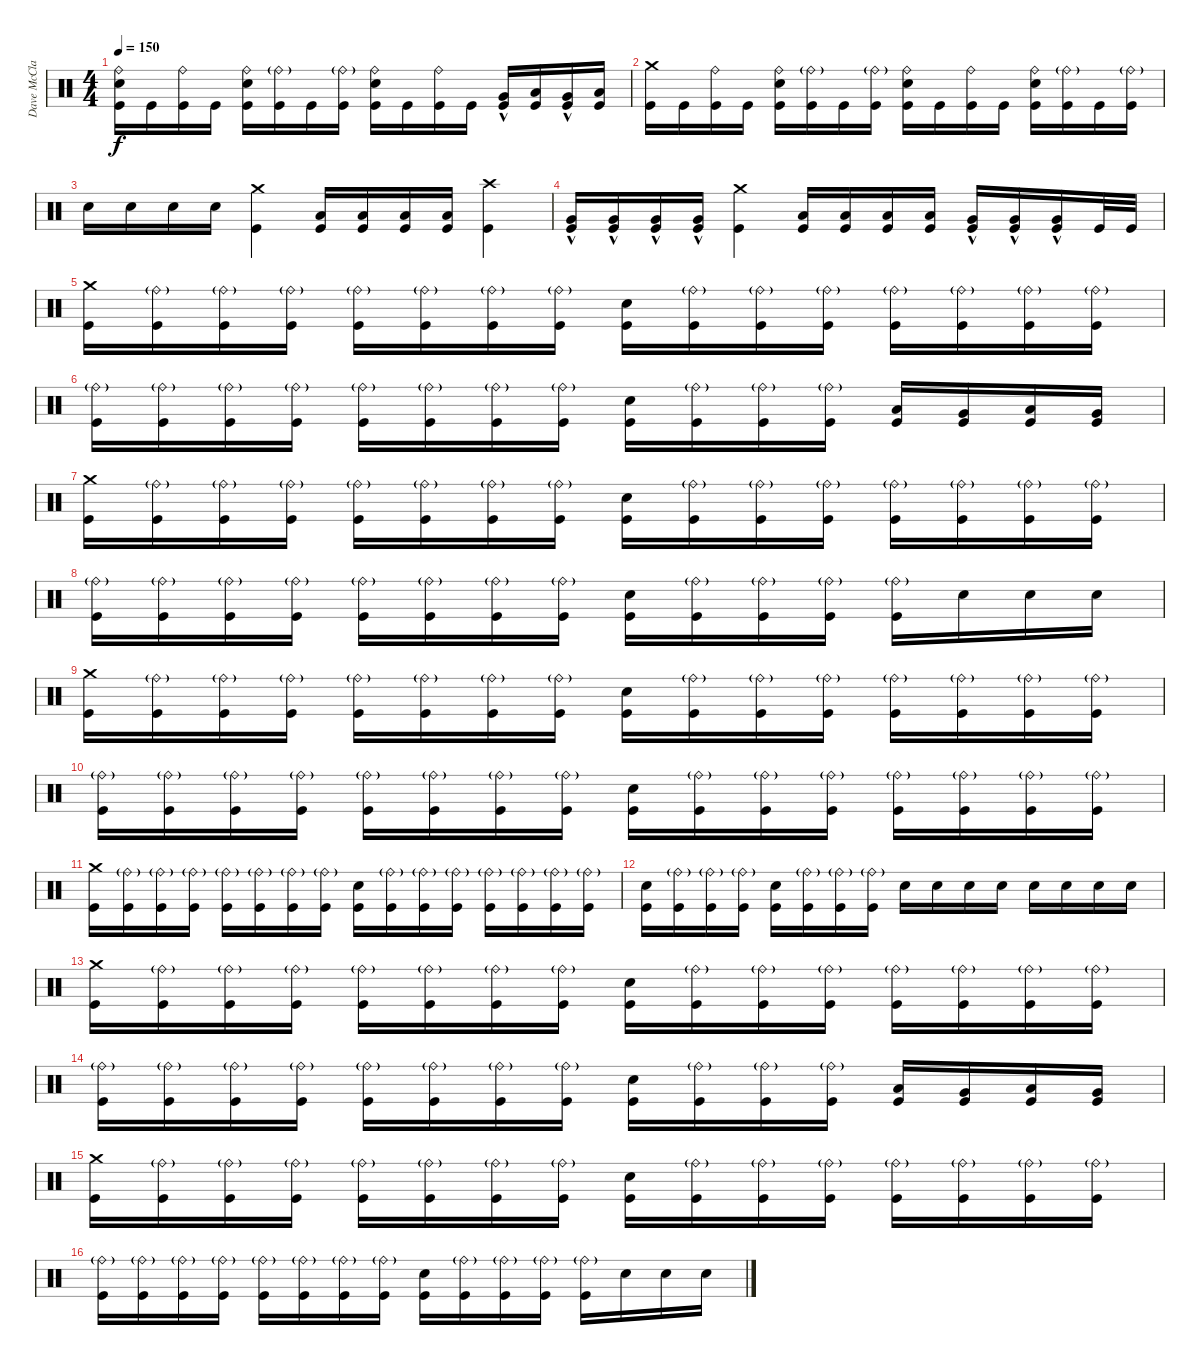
\track ("Dave McClaine" "Dave McCla") {instrument percussion}
\staff {score}
\articulation defaults
\ts (4 4)
\tempo 150
\clef neutral
\ks c
("Kick (hit)" "Ride (bell)" "Snare (hit) 2").16{dy f} "Kick (hit)".16 ("Kick (hit)" "Ride (bell)").16 "Kick (hit)".16 ("Kick (hit)" "Snare (hit) 2" "Ride (bell)").16 ("Kick (hit)" "Ride (bell)"{g}).16 "Kick (hit)".16 ("Kick (hit)" "Ride (bell)"{g}).16 ("Kick (hit)" "Snare (hit) 2" "Ride (bell)").16 "Kick (hit)".16 ("Kick (hit)" "Ride (bell)").16 "Kick (hit)".16 ("Very Low Tom (hit)"{hac} "Kick (hit)").16 ("Low Tom (hit)" "Kick (hit)").16 ("Very Low Tom (hit)"{hac} "Kick (hit)").16 ("Low Tom (hit)" "Kick (hit)").16 |
("Kick (hit)" "Crash medium (hit)").16 "Kick (hit)".16 ("Kick (hit)" "Ride (bell)").16 "Kick (hit)".16 ("Kick (hit)" "Snare (hit) 2" "Ride (bell)").16 ("Kick (hit)" "Ride (bell)"{g}).16 "Kick (hit)".16 ("Kick (hit)" "Ride (bell)"{g}).16 ("Kick (hit)" "Snare (hit) 2" "Ride (bell)").16 "Kick (hit)".16 ("Kick (hit)" "Ride (bell)").16 "Kick (hit)".16 ("Kick (hit)" "Snare (hit) 2" "Ride (bell)").16 ("Kick (hit)" "Ride (bell)"{g}).16 "Kick (hit)".16 ("Kick (hit)" "Ride (bell)"{g}).16 |
"Snare (hit) 2".16 "Snare (hit) 2".16 "Snare (hit) 2".16 "Snare (hit) 2".16 ("Crash medium (hit)" "Kick (hit)").4 ("Low Tom (hit)" "Kick (hit)").16 ("Low Tom (hit)" "Kick (hit)").16 ("Low Tom (hit)" "Kick (hit)").16 ("Low Tom (hit)" "Kick (hit)").16 ("Crash high (hit)" "Kick (hit)").4 |
("Very Low Tom (hit)"{hac} "Kick (hit)").16 ("Very Low Tom (hit)"{hac} "Kick (hit)").16 ("Very Low Tom (hit)"{hac} "Kick (hit)").16 ("Very Low Tom (hit)"{hac} "Kick (hit)").16 ("Crash medium (hit)" "Kick (hit)").4 ("Low Tom (hit)" "Kick (hit)").16 ("Low Tom (hit)" "Kick (hit)").16 ("Low Tom (hit)" "Kick (hit)").16 ("Low Tom (hit)" "Kick (hit)").16 ("Very Low Tom (hit)"{hac} "Kick (hit)").16 ("Very Low Tom (hit)"{hac} "Kick (hit)").16 ("Very Low Tom (hit)"{hac} "Kick (hit)").16 "Kick (hit)".32 "Kick (hit)".32 |
("Kick (hit)" "Crash medium (hit)").16 ("Kick (hit)" "Ride (bell)"{g}).16 ("Kick (hit)" "Ride (bell)"{g}).16 ("Kick (hit)" "Ride (bell)"{g}).16 ("Kick (hit)" "Ride (bell)"{g}).16 ("Kick (hit)" "Ride (bell)"{g}).16 ("Kick (hit)" "Ride (bell)"{g}).16 ("Kick (hit)" "Ride (bell)"{g}).16 ("Kick (hit)" "Snare (hit) 2").16 ("Kick (hit)" "Ride (bell)"{g}).16 ("Kick (hit)" "Ride (bell)"{g}).16 ("Kick (hit)" "Ride (bell)"{g}).16 ("Kick (hit)" "Ride (bell)"{g}).16 ("Kick (hit)" "Ride (bell)"{g}).16 ("Kick (hit)" "Ride (bell)"{g}).16 ("Kick (hit)" "Ride (bell)"{g}).16 |
("Ride (bell)"{g} "Kick (hit)").16 ("Kick (hit)" "Ride (bell)"{g}).16 ("Kick (hit)" "Ride (bell)"{g}).16 ("Kick (hit)" "Ride (bell)"{g}).16 ("Kick (hit)" "Ride (bell)"{g}).16 ("Kick (hit)" "Ride (bell)"{g}).16 ("Kick (hit)" "Ride (bell)"{g}).16 ("Kick (hit)" "Ride (bell)"{g}).16 ("Kick (hit)" "Snare (hit) 2").16 ("Kick (hit)" "Ride (bell)"{g}).16 ("Kick (hit)" "Ride (bell)"{g}).16 ("Kick (hit)" "Ride (bell)"{g}).16 ("Kick (hit)" "Low Tom (hit)").16 ("Kick (hit)" "Very Low Tom (hit)").16 ("Kick (hit)" "Low Tom (hit)").16 ("Kick (hit)" "Very Low Tom (hit)").16 |
("Kick (hit)" "Crash medium (hit)").16 ("Kick (hit)" "Ride (bell)"{g}).16 ("Kick (hit)" "Ride (bell)"{g}).16 ("Kick (hit)" "Ride (bell)"{g}).16 ("Kick (hit)" "Ride (bell)"{g}).16 ("Kick (hit)" "Ride (bell)"{g}).16 ("Kick (hit)" "Ride (bell)"{g}).16 ("Kick (hit)" "Ride (bell)"{g}).16 ("Kick (hit)" "Snare (hit) 2").16 ("Kick (hit)" "Ride (bell)"{g}).16 ("Kick (hit)" "Ride (bell)"{g}).16 ("Kick (hit)" "Ride (bell)"{g}).16 ("Kick (hit)" "Ride (bell)"{g}).16 ("Kick (hit)" "Ride (bell)"{g}).16 ("Kick (hit)" "Ride (bell)"{g}).16 ("Kick (hit)" "Ride (bell)"{g}).16 |
("Ride (bell)"{g} "Kick (hit)").16 ("Kick (hit)" "Ride (bell)"{g}).16 ("Kick (hit)" "Ride (bell)"{g}).16 ("Kick (hit)" "Ride (bell)"{g}).16 ("Kick (hit)" "Ride (bell)"{g}).16 ("Kick (hit)" "Ride (bell)"{g}).16 ("Kick (hit)" "Ride (bell)"{g}).16 ("Kick (hit)" "Ride (bell)"{g}).16 ("Kick (hit)" "Snare (hit) 2").16 ("Kick (hit)" "Ride (bell)"{g}).16 ("Kick (hit)" "Ride (bell)"{g}).16 ("Kick (hit)" "Ride (bell)"{g}).16 ("Kick (hit)" "Ride (bell)"{g}).16 "Snare (hit) 2".16 "Snare (hit) 2".16 "Snare (hit) 2".16 |
("Kick (hit)" "Crash medium (hit)").16 ("Kick (hit)" "Ride (bell)"{g}).16 ("Kick (hit)" "Ride (bell)"{g}).16 ("Kick (hit)" "Ride (bell)"{g}).16 ("Kick (hit)" "Ride (bell)"{g}).16 ("Kick (hit)" "Ride (bell)"{g}).16 ("Kick (hit)" "Ride (bell)"{g}).16 ("Kick (hit)" "Ride (bell)"{g}).16 ("Kick (hit)" "Snare (hit) 2").16 ("Kick (hit)" "Ride (bell)"{g}).16 ("Kick (hit)" "Ride (bell)"{g}).16 ("Kick (hit)" "Ride (bell)"{g}).16 ("Kick (hit)" "Ride (bell)"{g}).16 ("Kick (hit)" "Ride (bell)"{g}).16 ("Kick (hit)" "Ride (bell)"{g}).16 ("Kick (hit)" "Ride (bell)"{g}).16 |
("Ride (bell)"{g} "Kick (hit)").16 ("Kick (hit)" "Ride (bell)"{g}).16 ("Kick (hit)" "Ride (bell)"{g}).16 ("Kick (hit)" "Ride (bell)"{g}).16 ("Kick (hit)" "Ride (bell)"{g}).16 ("Kick (hit)" "Ride (bell)"{g}).16 ("Kick (hit)" "Ride (bell)"{g}).16 ("Kick (hit)" "Ride (bell)"{g}).16 ("Kick (hit)" "Snare (hit) 2").16 ("Kick (hit)" "Ride (bell)"{g}).16 ("Kick (hit)" "Ride (bell)"{g}).16 ("Kick (hit)" "Ride (bell)"{g}).16 ("Ride (bell)"{g} "Kick (hit)").16 ("Kick (hit)" "Ride (bell)"{g}).16 ("Kick (hit)" "Ride (bell)"{g}).16 ("Kick (hit)" "Ride (bell)"{g}).16 |
("Kick (hit)" "Crash medium (hit)").16 ("Kick (hit)" "Ride (bell)"{g}).16 ("Kick (hit)" "Ride (bell)"{g}).16 ("Kick (hit)" "Ride (bell)"{g}).16 ("Kick (hit)" "Ride (bell)"{g}).16 ("Kick (hit)" "Ride (bell)"{g}).16 ("Kick (hit)" "Ride (bell)"{g}).16 ("Kick (hit)" "Ride (bell)"{g}).16 ("Kick (hit)" "Snare (hit) 2").16 ("Kick (hit)" "Ride (bell)"{g}).16 ("Kick (hit)" "Ride (bell)"{g}).16 ("Kick (hit)" "Ride (bell)"{g}).16 ("Kick (hit)" "Ride (bell)"{g}).16 ("Kick (hit)" "Ride (bell)"{g}).16 ("Kick (hit)" "Ride (bell)"{g}).16 ("Kick (hit)" "Ride (bell)"{g}).16 |
("Kick (hit)" "Snare (hit) 2").16 ("Kick (hit)" "Ride (bell)"{g}).16 ("Kick (hit)" "Ride (bell)"{g}).16 ("Kick (hit)" "Ride (bell)"{g}).16 ("Kick (hit)" "Snare (hit) 2").16 ("Kick (hit)" "Ride (bell)"{g}).16 ("Kick (hit)" "Ride (bell)"{g}).16 ("Kick (hit)" "Ride (bell)"{g}).16 "Snare (hit) 2".16 "Snare (hit) 2".16 "Snare (hit) 2".16 "Snare (hit) 2".16 "Snare (hit) 2".16 "Snare (hit) 2".16 "Snare (hit) 2".16 "Snare (hit) 2".16 |
("Kick (hit)" "Crash medium (hit)").16 ("Kick (hit)" "Ride (bell)"{g}).16 ("Kick (hit)" "Ride (bell)"{g}).16 ("Kick (hit)" "Ride (bell)"{g}).16 ("Kick (hit)" "Ride (bell)"{g}).16 ("Kick (hit)" "Ride (bell)"{g}).16 ("Kick (hit)" "Ride (bell)"{g}).16 ("Kick (hit)" "Ride (bell)"{g}).16 ("Kick (hit)" "Snare (hit) 2").16 ("Kick (hit)" "Ride (bell)"{g}).16 ("Kick (hit)" "Ride (bell)"{g}).16 ("Kick (hit)" "Ride (bell)"{g}).16 ("Kick (hit)" "Ride (bell)"{g}).16 ("Kick (hit)" "Ride (bell)"{g}).16 ("Kick (hit)" "Ride (bell)"{g}).16 ("Kick (hit)" "Ride (bell)"{g}).16 |
("Ride (bell)"{g} "Kick (hit)").16 ("Kick (hit)" "Ride (bell)"{g}).16 ("Kick (hit)" "Ride (bell)"{g}).16 ("Kick (hit)" "Ride (bell)"{g}).16 ("Kick (hit)" "Ride (bell)"{g}).16 ("Kick (hit)" "Ride (bell)"{g}).16 ("Kick (hit)" "Ride (bell)"{g}).16 ("Kick (hit)" "Ride (bell)"{g}).16 ("Kick (hit)" "Snare (hit) 2").16 ("Kick (hit)" "Ride (bell)"{g}).16 ("Kick (hit)" "Ride (bell)"{g}).16 ("Kick (hit)" "Ride (bell)"{g}).16 ("Kick (hit)" "Low Tom (hit)").16 ("Kick (hit)" "Very Low Tom (hit)").16 ("Kick (hit)" "Low Tom (hit)").16 ("Kick (hit)" "Very Low Tom (hit)").16 |
("Kick (hit)" "Crash medium (hit)").16 ("Kick (hit)" "Ride (bell)"{g}).16 ("Kick (hit)" "Ride (bell)"{g}).16 ("Kick (hit)" "Ride (bell)"{g}).16 ("Kick (hit)" "Ride (bell)"{g}).16 ("Kick (hit)" "Ride (bell)"{g}).16 ("Kick (hit)" "Ride (bell)"{g}).16 ("Kick (hit)" "Ride (bell)"{g}).16 ("Kick (hit)" "Snare (hit) 2").16 ("Kick (hit)" "Ride (bell)"{g}).16 ("Kick (hit)" "Ride (bell)"{g}).16 ("Kick (hit)" "Ride (bell)"{g}).16 ("Kick (hit)" "Ride (bell)"{g}).16 ("Kick (hit)" "Ride (bell)"{g}).16 ("Kick (hit)" "Ride (bell)"{g}).16 ("Kick (hit)" "Ride (bell)"{g}).16 |
("Ride (bell)"{g} "Kick (hit)").16 ("Kick (hit)" "Ride (bell)"{g}).16 ("Kick (hit)" "Ride (bell)"{g}).16 ("Kick (hit)" "Ride (bell)"{g}).16 ("Kick (hit)" "Ride (bell)"{g}).16 ("Kick (hit)" "Ride (bell)"{g}).16 ("Kick (hit)" "Ride (bell)"{g}).16 ("Kick (hit)" "Ride (bell)"{g}).16 ("Kick (hit)" "Snare (hit) 2").16 ("Kick (hit)" "Ride (bell)"{g}).16 ("Kick (hit)" "Ride (bell)"{g}).16 ("Kick (hit)" "Ride (bell)"{g}).16 ("Kick (hit)" "Ride (bell)"{g}).16 "Snare (hit) 2".16 "Snare (hit) 2".16 "Snare (hit) 2".16
